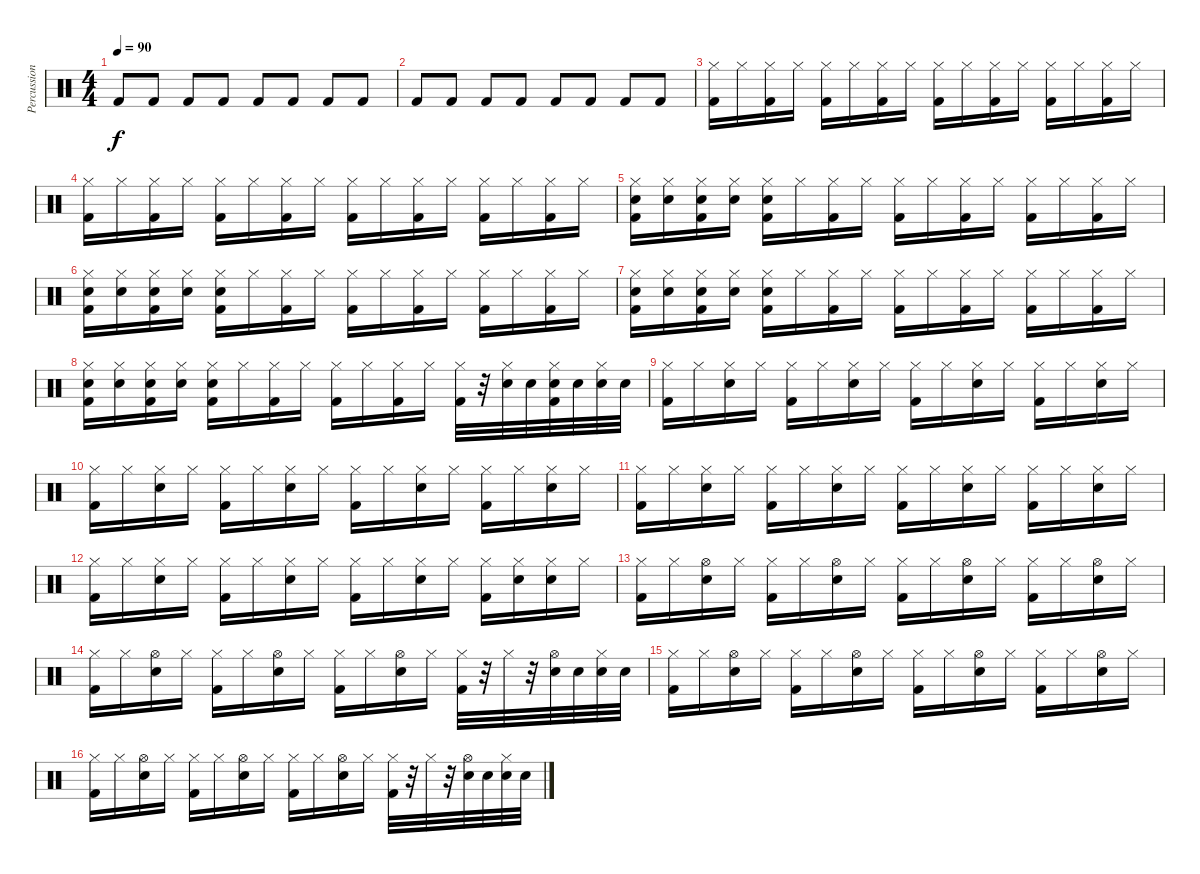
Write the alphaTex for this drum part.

\track ("Percussions" "Percussion") {instrument percussion}
\staff {score}
\articulation defaults
\ts (4 4)
\tempo 90
\clef neutral
\ks c "Kick (hit) 2".8{dy f} "Kick (hit) 2".8 "Kick (hit) 2".8 "Kick (hit) 2".8 "Kick (hit) 2".8 "Kick (hit) 2".8 "Kick (hit) 2".8 "Kick (hit) 2".8
|
"Kick (hit) 2".8 "Kick (hit) 2".8 "Kick (hit) 2".8 "Kick (hit) 2".8 "Kick (hit) 2".8 "Kick (hit) 2".8 "Kick (hit) 2".8 "Kick (hit) 2".8 |
("Hi-Hat (closed)" "Kick (hit) 2").16 "Hi-Hat (closed)".16 ("Hi-Hat (closed)" "Kick (hit) 2").16 "Hi-Hat (closed)".16 ("Hi-Hat (closed)" "Kick (hit) 2").16 "Hi-Hat (closed)".16 ("Hi-Hat (closed)" "Kick (hit) 2").16 "Hi-Hat (closed)".16 ("Hi-Hat (closed)" "Kick (hit) 2").16 "Hi-Hat (closed)".16 ("Hi-Hat (closed)" "Kick (hit) 2").16 "Hi-Hat (closed)".16 ("Hi-Hat (closed)" "Kick (hit) 2").16 "Hi-Hat (closed)".16 ("Hi-Hat (closed)" "Kick (hit) 2").16 "Hi-Hat (closed)".16 |
("Hi-Hat (closed)" "Kick (hit) 2").16 "Hi-Hat (closed)".16 ("Hi-Hat (closed)" "Kick (hit) 2").16 "Hi-Hat (closed)".16 ("Hi-Hat (closed)" "Kick (hit) 2").16 "Hi-Hat (closed)".16 ("Hi-Hat (closed)" "Kick (hit) 2").16 "Hi-Hat (closed)".16 ("Hi-Hat (closed)" "Kick (hit) 2").16 "Hi-Hat (closed)".16 ("Hi-Hat (closed)" "Kick (hit) 2").16 "Hi-Hat (closed)".16 ("Hi-Hat (closed)" "Kick (hit) 2").16 "Hi-Hat (closed)".16 ("Hi-Hat (closed)" "Kick (hit) 2").16 "Hi-Hat (closed)".16 |
("Hi-Hat (closed)" "Snare (hit) 2" "Kick (hit) 2").16 ("Hi-Hat (closed)" "Snare (hit) 2").16 ("Hi-Hat (closed)" "Snare (hit) 2" "Kick (hit) 2").16 ("Hi-Hat (closed)" "Snare (hit) 2").16 ("Hi-Hat (closed)" "Snare (hit) 2" "Kick (hit) 2").16 "Hi-Hat (closed)".16 ("Hi-Hat (closed)" "Kick (hit) 2").16 "Hi-Hat (closed)".16 ("Hi-Hat (closed)" "Kick (hit) 2").16 "Hi-Hat (closed)".16 ("Hi-Hat (closed)" "Kick (hit) 2").16 "Hi-Hat (closed)".16 ("Hi-Hat (closed)" "Kick (hit) 2").16 "Hi-Hat (closed)".16 ("Hi-Hat (closed)" "Kick (hit) 2").16 "Hi-Hat (closed)".16 |
("Hi-Hat (closed)" "Snare (hit) 2" "Kick (hit) 2").16 ("Hi-Hat (closed)" "Snare (hit) 2").16 ("Hi-Hat (closed)" "Snare (hit) 2" "Kick (hit) 2").16 ("Hi-Hat (closed)" "Snare (hit) 2").16 ("Hi-Hat (closed)" "Snare (hit) 2" "Kick (hit) 2").16 "Hi-Hat (closed)".16 ("Hi-Hat (closed)" "Kick (hit) 2").16 "Hi-Hat (closed)".16 ("Hi-Hat (closed)" "Kick (hit) 2").16 "Hi-Hat (closed)".16 ("Hi-Hat (closed)" "Kick (hit) 2").16 "Hi-Hat (closed)".16 ("Hi-Hat (closed)" "Kick (hit) 2").16 "Hi-Hat (closed)".16 ("Hi-Hat (closed)" "Kick (hit) 2").16 "Hi-Hat (closed)".16 |
("Hi-Hat (closed)" "Snare (hit) 2" "Kick (hit) 2").16 ("Hi-Hat (closed)" "Snare (hit) 2").16 ("Hi-Hat (closed)" "Snare (hit) 2" "Kick (hit) 2").16 ("Hi-Hat (closed)" "Snare (hit) 2").16 ("Hi-Hat (closed)" "Snare (hit) 2" "Kick (hit) 2").16 "Hi-Hat (closed)".16 ("Hi-Hat (closed)" "Kick (hit) 2").16 "Hi-Hat (closed)".16 ("Hi-Hat (closed)" "Kick (hit) 2").16 "Hi-Hat (closed)".16 ("Hi-Hat (closed)" "Kick (hit) 2").16 "Hi-Hat (closed)".16 ("Hi-Hat (closed)" "Kick (hit) 2").16 "Hi-Hat (closed)".16 ("Hi-Hat (closed)" "Kick (hit) 2").16 "Hi-Hat (closed)".16 |
("Hi-Hat (closed)" "Snare (hit) 2" "Kick (hit) 2").16 ("Hi-Hat (closed)" "Snare (hit) 2").16 ("Hi-Hat (closed)" "Snare (hit) 2" "Kick (hit) 2").16 ("Hi-Hat (closed)" "Snare (hit) 2").16 ("Hi-Hat (closed)" "Snare (hit) 2" "Kick (hit) 2").16 "Hi-Hat (closed)".16 ("Hi-Hat (closed)" "Kick (hit) 2").16 "Hi-Hat (closed)".16 ("Hi-Hat (closed)" "Kick (hit) 2").16 "Hi-Hat (closed)".16 ("Hi-Hat (closed)" "Kick (hit) 2").16 "Hi-Hat (closed)".16 ("Hi-Hat (closed)" "Kick (hit) 2").32 r.32 ("Hi-Hat (closed)" "Snare (hit) 2").32 "Snare (hit) 2".32 ("Hi-Hat (closed)" "Snare (hit) 2" "Kick (hit) 2").32 "Snare (hit) 2".32 ("Hi-Hat (closed)" "Snare (hit) 2").32 "Snare (hit) 2".32 |
("Hi-Hat (closed)" "Kick (hit) 2").16 "Hi-Hat (closed)".16 ("Hi-Hat (closed)" "Snare (hit) 2").16 "Hi-Hat (closed)".16 ("Hi-Hat (closed)" "Kick (hit) 2").16 "Hi-Hat (closed)".16 ("Hi-Hat (closed)" "Snare (hit) 2").16 "Hi-Hat (closed)".16 ("Hi-Hat (closed)" "Kick (hit) 2").16 "Hi-Hat (closed)".16 ("Hi-Hat (closed)" "Snare (hit) 2").16 "Hi-Hat (closed)".16 ("Hi-Hat (closed)" "Kick (hit) 2").16 "Hi-Hat (closed)".16 ("Hi-Hat (closed)" "Snare (hit) 2").16 "Hi-Hat (closed)".16 |
("Hi-Hat (closed)" "Kick (hit) 2").16 "Hi-Hat (closed)".16 ("Hi-Hat (closed)" "Snare (hit) 2").16 "Hi-Hat (closed)".16 ("Hi-Hat (closed)" "Kick (hit) 2").16 "Hi-Hat (closed)".16 ("Hi-Hat (closed)" "Snare (hit) 2").16 "Hi-Hat (closed)".16 ("Hi-Hat (closed)" "Kick (hit) 2").16 "Hi-Hat (closed)".16 ("Hi-Hat (closed)" "Snare (hit) 2").16 "Hi-Hat (closed)".16 ("Hi-Hat (closed)" "Kick (hit) 2").16 "Hi-Hat (closed)".16 ("Hi-Hat (closed)" "Snare (hit) 2").16 "Hi-Hat (closed)".16 |
("Hi-Hat (closed)" "Kick (hit) 2").16 "Hi-Hat (closed)".16 ("Hi-Hat (closed)" "Snare (hit) 2").16 "Hi-Hat (closed)".16 ("Hi-Hat (closed)" "Kick (hit) 2").16 "Hi-Hat (closed)".16 ("Hi-Hat (closed)" "Snare (hit) 2").16 "Hi-Hat (closed)".16 ("Hi-Hat (closed)" "Kick (hit) 2").16 "Hi-Hat (closed)".16 ("Hi-Hat (closed)" "Snare (hit) 2").16 "Hi-Hat (closed)".16 ("Hi-Hat (closed)" "Kick (hit) 2").16 "Hi-Hat (closed)".16 ("Hi-Hat (closed)" "Snare (hit) 2").16 "Hi-Hat (closed)".16 |
("Hi-Hat (closed)" "Kick (hit) 2").16 "Hi-Hat (closed)".16 ("Hi-Hat (closed)" "Snare (hit) 2").16 "Hi-Hat (closed)".16 ("Hi-Hat (closed)" "Kick (hit) 2").16 "Hi-Hat (closed)".16 ("Hi-Hat (closed)" "Snare (hit) 2").16 "Hi-Hat (closed)".16 ("Hi-Hat (closed)" "Kick (hit) 2").16 "Hi-Hat (closed)".16 ("Hi-Hat (closed)" "Snare (hit) 2").16 "Hi-Hat (closed)".16 ("Hi-Hat (closed)" "Kick (hit) 2").16 ("Hi-Hat (closed)" "Snare (hit) 2").16 ("Hi-Hat (closed)" "Snare (hit) 2").16 "Hi-Hat (closed)".16 |
("Hi-Hat (closed)" "Kick (hit) 2").16 "Hi-Hat (closed)".16 ("Hi-Hat (open)" "Snare (hit) 2").16 "Hi-Hat (closed)".16 ("Hi-Hat (closed)" "Kick (hit) 2").16 "Hi-Hat (closed)".16 ("Hi-Hat (open)" "Snare (hit) 2").16 "Hi-Hat (closed)".16 ("Hi-Hat (closed)" "Kick (hit) 2").16 "Hi-Hat (closed)".16 ("Hi-Hat (open)" "Snare (hit) 2").16 "Hi-Hat (closed)".16 ("Hi-Hat (closed)" "Kick (hit) 2").16 "Hi-Hat (closed)".16 ("Hi-Hat (open)" "Snare (hit) 2").16 "Hi-Hat (closed)".16 |
("Hi-Hat (closed)" "Kick (hit) 2").16 "Hi-Hat (closed)".16 ("Hi-Hat (open)" "Snare (hit) 2").16 "Hi-Hat (closed)".16 ("Hi-Hat (closed)" "Kick (hit) 2").16 "Hi-Hat (closed)".16 ("Hi-Hat (open)" "Snare (hit) 2").16 "Hi-Hat (closed)".16 ("Hi-Hat (closed)" "Kick (hit) 2").16 "Hi-Hat (closed)".16 ("Hi-Hat (open)" "Snare (hit) 2").16 "Hi-Hat (closed)".16 ("Hi-Hat (closed)" "Kick (hit) 2").32 r.32 "Hi-Hat (closed)".32 r.32 ("Hi-Hat (open)" "Snare (hit) 2").32 "Snare (hit) 2".32 ("Hi-Hat (closed)" "Snare (hit) 2").32 "Snare (hit) 2".32 |
("Hi-Hat (closed)" "Kick (hit) 2").16 "Hi-Hat (closed)".16 ("Hi-Hat (open)" "Snare (hit) 2").16 "Hi-Hat (closed)".16 ("Hi-Hat (closed)" "Kick (hit) 2").16 "Hi-Hat (closed)".16 ("Hi-Hat (open)" "Snare (hit) 2").16 "Hi-Hat (closed)".16 ("Hi-Hat (closed)" "Kick (hit) 2").16 "Hi-Hat (closed)".16 ("Hi-Hat (open)" "Snare (hit) 2").16 "Hi-Hat (closed)".16 ("Hi-Hat (closed)" "Kick (hit) 2").16 "Hi-Hat (closed)".16 ("Hi-Hat (open)" "Snare (hit) 2").16 "Hi-Hat (closed)".16 |
("Hi-Hat (closed)" "Kick (hit) 2").16 "Hi-Hat (closed)".16 ("Hi-Hat (open)" "Snare (hit) 2").16 "Hi-Hat (closed)".16 ("Hi-Hat (closed)" "Kick (hit) 2").16 "Hi-Hat (closed)".16 ("Hi-Hat (open)" "Snare (hit) 2").16 "Hi-Hat (closed)".16 ("Hi-Hat (closed)" "Kick (hit) 2").16 "Hi-Hat (closed)".16 ("Hi-Hat (open)" "Snare (hit) 2").16 "Hi-Hat (closed)".16 ("Hi-Hat (closed)" "Kick (hit) 2").32 r.32 "Hi-Hat (closed)".32 r.32 ("Hi-Hat (open)" "Snare (hit) 2").32 "Snare (hit) 2".32 ("Hi-Hat (closed)" "Snare (hit) 2").32 "Snare (hit) 2".32
